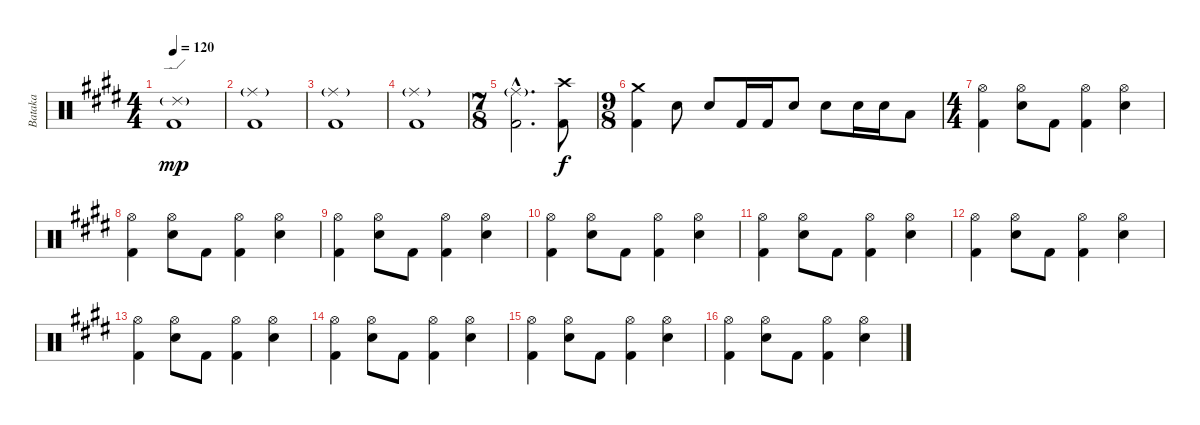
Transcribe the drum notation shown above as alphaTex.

\track ("Bataka" "Bataka") {instrument percussion}
\staff {score}
\articulation defaults
\ts (4 4)
\tempo 120
\clef neutral
\ks e
("Ride (edge) 2"{g} "Kick (hit) 2").1{dy mp} |
("Ride (middle)"{g} "Kick (hit) 2").1 |
("Ride (middle)"{g} "Kick (hit) 2").1 |
("Ride (middle)"{g} "Kick (hit) 2").1 |
\ts (7 8)
("Ride (middle)"{g hac} "Kick (hit) 2"{hac}).2{d} ("Crash high (hit)" "Kick (hit) 2").8{dy f} |
\ts (9 8)
("Crash medium (hit)" "Kick (hit) 2").4 "Electric Snare (hit)".8 "Electric Snare (hit)".8 "Kick (hit) 2".16 "Kick (hit) 2".16 "Electric Snare (hit)".8 "Electric Snare (hit)".8 "Electric Snare (hit)".16 "Electric Snare (hit)".16 "Low Tom (hit)".8 |
\ts (4 4)
("Hi-Hat (open)" "Kick (hit) 2").4 ("Hi-Hat (open)" "Electric Snare (hit)").8 "Kick (hit) 2".8 ("Hi-Hat (open)" "Kick (hit) 2").4 ("Hi-Hat (open)" "Electric Snare (hit)").4 |
("Hi-Hat (open)" "Kick (hit) 2").4 ("Hi-Hat (open)" "Electric Snare (hit)").8 "Kick (hit) 2".8 ("Hi-Hat (open)" "Kick (hit) 2").4 ("Hi-Hat (open)" "Electric Snare (hit)").4 |
("Hi-Hat (open)" "Kick (hit) 2").4 ("Hi-Hat (open)" "Electric Snare (hit)").8 "Kick (hit) 2".8 ("Hi-Hat (open)" "Kick (hit) 2").4 ("Hi-Hat (open)" "Electric Snare (hit)").4 |
("Hi-Hat (open)" "Kick (hit) 2").4 ("Hi-Hat (open)" "Electric Snare (hit)").8 "Kick (hit) 2".8 ("Hi-Hat (open)" "Kick (hit) 2").4 ("Hi-Hat (open)" "Electric Snare (hit)").4 |
("Hi-Hat (open)" "Kick (hit) 2").4 ("Hi-Hat (open)" "Electric Snare (hit)").8 "Kick (hit) 2".8 ("Hi-Hat (open)" "Kick (hit) 2").4 ("Hi-Hat (open)" "Electric Snare (hit)").4 |
("Hi-Hat (open)" "Kick (hit) 2").4 ("Hi-Hat (open)" "Electric Snare (hit)").8 "Kick (hit) 2".8 ("Hi-Hat (open)" "Kick (hit) 2").4 ("Hi-Hat (open)" "Electric Snare (hit)").4 |
("Hi-Hat (open)" "Kick (hit) 2").4 ("Hi-Hat (open)" "Electric Snare (hit)").8 "Kick (hit) 2".8 ("Hi-Hat (open)" "Kick (hit) 2").4 ("Hi-Hat (open)" "Electric Snare (hit)").4 |
("Hi-Hat (open)" "Kick (hit) 2").4 ("Hi-Hat (open)" "Electric Snare (hit)").8 "Kick (hit) 2".8 ("Hi-Hat (open)" "Kick (hit) 2").4 ("Hi-Hat (open)" "Electric Snare (hit)").4 |
("Hi-Hat (open)" "Kick (hit) 2").4 ("Hi-Hat (open)" "Electric Snare (hit)").8 "Kick (hit) 2".8 ("Hi-Hat (open)" "Kick (hit) 2").4 ("Hi-Hat (open)" "Electric Snare (hit)").4 |
("Hi-Hat (open)" "Kick (hit) 2").4 ("Hi-Hat (open)" "Electric Snare (hit)").8 "Kick (hit) 2".8 ("Hi-Hat (open)" "Kick (hit) 2").4 ("Hi-Hat (open)" "Electric Snare (hit)").4
